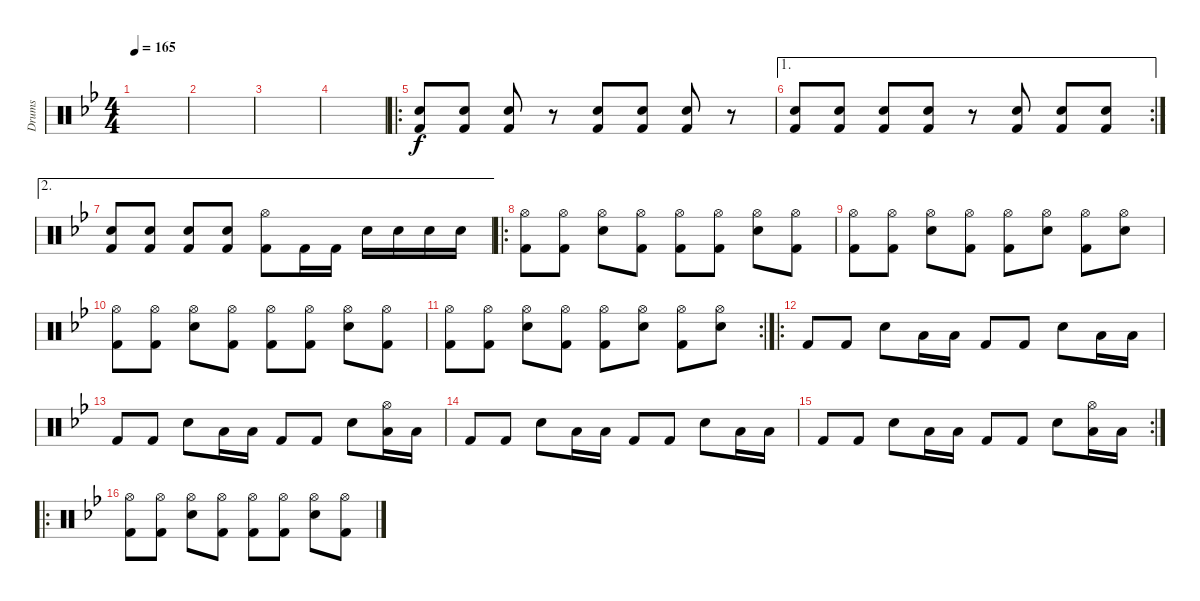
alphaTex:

\track ("Drums" "Drums") {instrument percussion}
\staff {score}
\articulation defaults
\ts (4 4)
\tempo 165
\clef neutral
\ks bb
|
|
|
|
\ro
("Kick (hit) 2" "Electric Snare (hit)").8 ("Kick (hit) 2" "Electric Snare (hit)").8 ("Kick (hit) 2" "Electric Snare (hit)").8 r.8 ("Kick (hit) 2" "Electric Snare (hit)").8 ("Kick (hit) 2" "Electric Snare (hit)").8 ("Kick (hit) 2" "Electric Snare (hit)").8 r.8 |
\ae 1
\rc 2
("Kick (hit) 2" "Electric Snare (hit)").8 ("Kick (hit) 2" "Electric Snare (hit)").8 ("Kick (hit) 2" "Electric Snare (hit)").8 ("Kick (hit) 2" "Electric Snare (hit)").8 r.8 ("Kick (hit) 2" "Electric Snare (hit)").8 ("Kick (hit) 2" "Electric Snare (hit)").8 ("Kick (hit) 2" "Electric Snare (hit)").8 |
\ae 2
("Kick (hit) 2" "Electric Snare (hit)").8 ("Kick (hit) 2" "Electric Snare (hit)").8 ("Kick (hit) 2" "Electric Snare (hit)").8 ("Kick (hit) 2" "Electric Snare (hit)").8 ("Kick (hit) 2" "Hi-Hat (open)").8 "Kick (hit) 2".16 "Kick (hit) 2".16 "Electric Snare (hit)".16 "Electric Snare (hit)".16 "Electric Snare (hit)".16 "Electric Snare (hit)".16 |
\ro
("Kick (hit) 2" "Hi-Hat (open)").8 ("Kick (hit) 2" "Hi-Hat (open)").8 ("Electric Snare (hit)" "Hi-Hat (open)").8 ("Kick (hit) 2" "Hi-Hat (open)").8 ("Kick (hit) 2" "Hi-Hat (open)").8 ("Kick (hit) 2" "Hi-Hat (open)").8 ("Electric Snare (hit)" "Hi-Hat (open)").8 ("Kick (hit) 2" "Hi-Hat (open)").8 |
("Kick (hit) 2" "Hi-Hat (open)").8 ("Kick (hit) 2" "Hi-Hat (open)").8 ("Electric Snare (hit)" "Hi-Hat (open)").8 ("Kick (hit) 2" "Hi-Hat (open)").8 ("Kick (hit) 2" "Hi-Hat (open)").8 ("Electric Snare (hit)" "Hi-Hat (open)").8 ("Kick (hit) 2" "Hi-Hat (open)").8 ("Electric Snare (hit)" "Hi-Hat (open)").8 |
("Kick (hit) 2" "Hi-Hat (open)").8 ("Kick (hit) 2" "Hi-Hat (open)").8 ("Electric Snare (hit)" "Hi-Hat (open)").8 ("Kick (hit) 2" "Hi-Hat (open)").8 ("Kick (hit) 2" "Hi-Hat (open)").8 ("Kick (hit) 2" "Hi-Hat (open)").8 ("Electric Snare (hit)" "Hi-Hat (open)").8 ("Kick (hit) 2" "Hi-Hat (open)").8 |
\rc 2
("Kick (hit) 2" "Hi-Hat (open)").8 ("Kick (hit) 2" "Hi-Hat (open)").8 ("Electric Snare (hit)" "Hi-Hat (open)").8 ("Kick (hit) 2" "Hi-Hat (open)").8 ("Kick (hit) 2" "Hi-Hat (open)").8 ("Electric Snare (hit)" "Hi-Hat (open)").8 ("Kick (hit) 2" "Hi-Hat (open)").8 ("Electric Snare (hit)" "Hi-Hat (open)").8 |
\ro "Kick (hit) 2".8 "Kick (hit) 2".8 "Electric Snare (hit)".8 "Low Floor Tom (hit)".16 "Low Floor Tom (hit)".16 "Kick (hit) 2".8 "Kick (hit) 2".8 "Electric Snare (hit)".8 "Low Floor Tom (hit)".16 "Low Floor Tom (hit)".16
|
"Kick (hit) 2".8 "Kick (hit) 2".8 "Electric Snare (hit)".8 "Low Floor Tom (hit)".16 "Low Floor Tom (hit)".16 "Kick (hit) 2".8 "Kick (hit) 2".8 "Electric Snare (hit)".8 ("Low Floor Tom (hit)" "Hi-Hat (open)").16 "Low Floor Tom (hit)".16 |
"Kick (hit) 2".8 "Kick (hit) 2".8 "Electric Snare (hit)".8 "Low Floor Tom (hit)".16 "Low Floor Tom (hit)".16 "Kick (hit) 2".8 "Kick (hit) 2".8 "Electric Snare (hit)".8 "Low Floor Tom (hit)".16 "Low Floor Tom (hit)".16 |
\rc 2 "Kick (hit) 2".8 "Kick (hit) 2".8 "Electric Snare (hit)".8 "Low Floor Tom (hit)".16 "Low Floor Tom (hit)".16 "Kick (hit) 2".8 "Kick (hit) 2".8 "Electric Snare (hit)".8
("Low Floor Tom (hit)" "Hi-Hat (open)").16 "Low Floor Tom (hit)".16 |
\ro
("Kick (hit) 2" "Hi-Hat (open)").8 ("Kick (hit) 2" "Hi-Hat (open)").8 ("Electric Snare (hit)" "Hi-Hat (open)").8 ("Kick (hit) 2" "Hi-Hat (open)").8 ("Kick (hit) 2" "Hi-Hat (open)").8 ("Kick (hit) 2" "Hi-Hat (open)").8 ("Electric Snare (hit)" "Hi-Hat (open)").8 ("Kick (hit) 2" "Hi-Hat (open)").8
